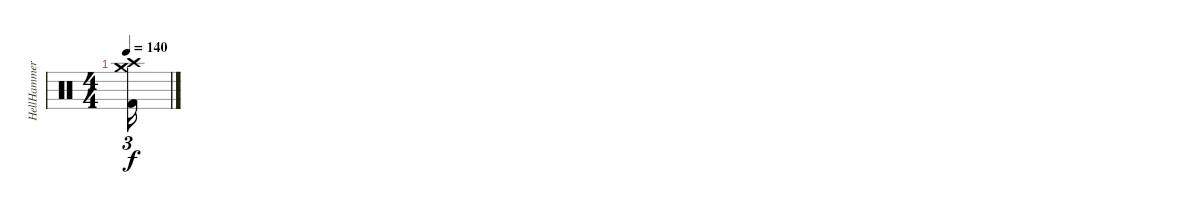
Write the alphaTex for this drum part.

\track ("HellHammer" "HellHammer") {instrument percussion}
\staff {score}
\articulation defaults
\ts (4 4)
\tempo 140
\clef neutral
\ks c
("Crash medium (hit)" "Crash high (hit)" "Kick (hit) 2").16{tu (3 2) dy f}
